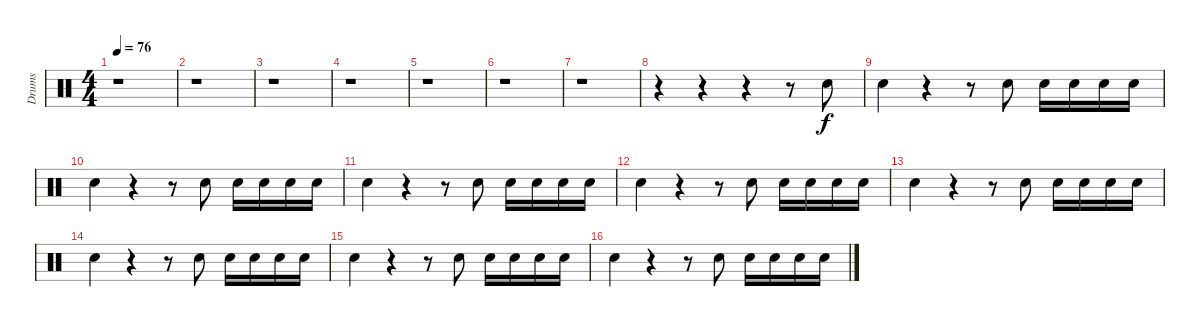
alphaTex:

\track ("Drums" "Drums") {instrument percussion}
\staff {score}
\articulation defaults
\ts (4 4)
\tempo 76
\clef neutral
\ks c
r.1{dy f} |
r.1 |
r.1 |
r.1 |
r.1 |
r.1 |
r.1 |
r.4 r.4 r.4 r.8 "Snare (hit) 2"{tr (38 64)}.8 |
"Snare (hit) 2".4 r.4 r.8 "Snare (hit) 2"{tr (38 64)}.8 "Snare (hit) 2".16 "Snare (hit) 2".16 "Snare (hit) 2".16 "Snare (hit) 2".16 |
"Snare (hit) 2".4 r.4 r.8 "Snare (hit) 2"{tr (38 64)}.8 "Snare (hit) 2".16 "Snare (hit) 2".16 "Snare (hit) 2".16 "Snare (hit) 2".16 |
"Snare (hit) 2".4 r.4 r.8 "Snare (hit) 2"{tr (38 64)}.8 "Snare (hit) 2".16 "Snare (hit) 2".16 "Snare (hit) 2".16 "Snare (hit) 2".16 |
"Snare (hit) 2".4 r.4 r.8 "Snare (hit) 2"{tr (38 64)}.8 "Snare (hit) 2".16 "Snare (hit) 2".16 "Snare (hit) 2".16 "Snare (hit) 2".16 |
"Snare (hit) 2".4 r.4 r.8 "Snare (hit) 2"{tr (38 64)}.8 "Snare (hit) 2".16 "Snare (hit) 2".16 "Snare (hit) 2".16 "Snare (hit) 2".16 |
"Snare (hit) 2".4 r.4 r.8 "Snare (hit) 2"{tr (38 64)}.8 "Snare (hit) 2".16 "Snare (hit) 2".16 "Snare (hit) 2".16 "Snare (hit) 2".16 |
"Snare (hit) 2".4 r.4 r.8 "Snare (hit) 2"{tr (38 64)}.8 "Snare (hit) 2".16 "Snare (hit) 2".16 "Snare (hit) 2".16 "Snare (hit) 2".16 |
"Snare (hit) 2".4 r.4 r.8 "Snare (hit) 2"{tr (38 64)}.8 "Snare (hit) 2".16 "Snare (hit) 2".16 "Snare (hit) 2".16 "Snare (hit) 2".16
